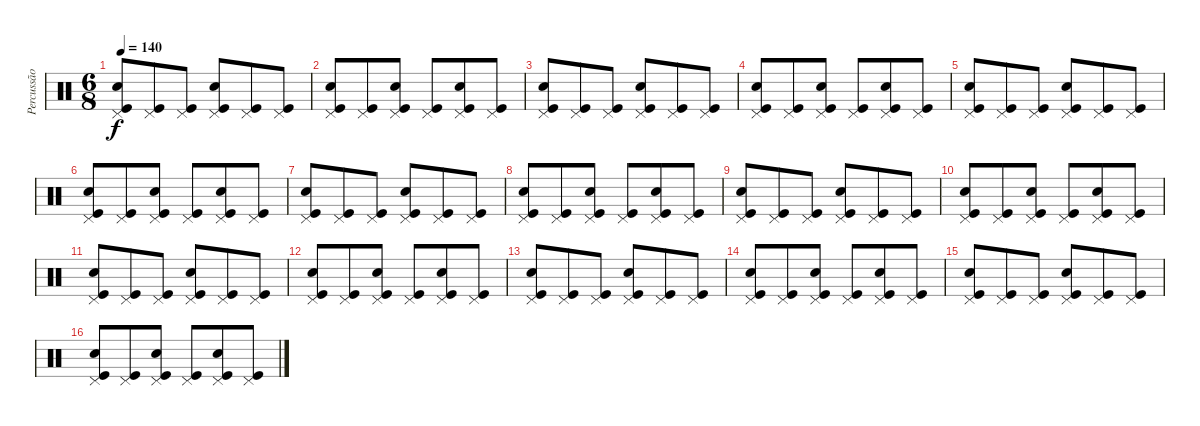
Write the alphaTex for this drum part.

\track ("Percussão" "Percussão") {instrument percussion}
\staff {score}
\articulation defaults
\ts (6 8)
\tempo 140
\clef neutral
\ks c
("Snare (hit) 2" "Kick (hit)" "Pedal Hi-Hat (hit)").8{dy f} ("Kick (hit)" "Pedal Hi-Hat (hit)").8 ("Kick (hit)" "Pedal Hi-Hat (hit)").8 ("Snare (hit) 2" "Kick (hit)" "Pedal Hi-Hat (hit)").8 ("Kick (hit)" "Pedal Hi-Hat (hit)").8 ("Kick (hit)" "Pedal Hi-Hat (hit)").8 |
("Snare (hit) 2" "Kick (hit)" "Pedal Hi-Hat (hit)").8 ("Kick (hit)" "Pedal Hi-Hat (hit)").8 ("Snare (hit) 2" "Kick (hit)" "Pedal Hi-Hat (hit)").8 ("Kick (hit)" "Pedal Hi-Hat (hit)").8 ("Snare (hit) 2" "Kick (hit)" "Pedal Hi-Hat (hit)").8 ("Kick (hit)" "Pedal Hi-Hat (hit)").8 |
("Snare (hit) 2" "Kick (hit)" "Pedal Hi-Hat (hit)").8 ("Kick (hit)" "Pedal Hi-Hat (hit)").8 ("Kick (hit)" "Pedal Hi-Hat (hit)").8 ("Snare (hit) 2" "Kick (hit)" "Pedal Hi-Hat (hit)").8 ("Kick (hit)" "Pedal Hi-Hat (hit)").8 ("Kick (hit)" "Pedal Hi-Hat (hit)").8 |
("Snare (hit) 2" "Kick (hit)" "Pedal Hi-Hat (hit)").8 ("Kick (hit)" "Pedal Hi-Hat (hit)").8 ("Snare (hit) 2" "Kick (hit)" "Pedal Hi-Hat (hit)").8 ("Kick (hit)" "Pedal Hi-Hat (hit)").8 ("Snare (hit) 2" "Kick (hit)" "Pedal Hi-Hat (hit)").8 ("Kick (hit)" "Pedal Hi-Hat (hit)").8 |
("Snare (hit) 2" "Kick (hit)" "Pedal Hi-Hat (hit)").8 ("Kick (hit)" "Pedal Hi-Hat (hit)").8 ("Kick (hit)" "Pedal Hi-Hat (hit)").8 ("Snare (hit) 2" "Kick (hit)" "Pedal Hi-Hat (hit)").8 ("Kick (hit)" "Pedal Hi-Hat (hit)").8 ("Kick (hit)" "Pedal Hi-Hat (hit)").8 |
("Snare (hit) 2" "Kick (hit)" "Pedal Hi-Hat (hit)").8 ("Kick (hit)" "Pedal Hi-Hat (hit)").8 ("Snare (hit) 2" "Kick (hit)" "Pedal Hi-Hat (hit)").8 ("Kick (hit)" "Pedal Hi-Hat (hit)").8 ("Snare (hit) 2" "Kick (hit)" "Pedal Hi-Hat (hit)").8 ("Kick (hit)" "Pedal Hi-Hat (hit)").8 |
("Snare (hit) 2" "Kick (hit)" "Pedal Hi-Hat (hit)").8 ("Kick (hit)" "Pedal Hi-Hat (hit)").8 ("Kick (hit)" "Pedal Hi-Hat (hit)").8 ("Snare (hit) 2" "Kick (hit)" "Pedal Hi-Hat (hit)").8 ("Kick (hit)" "Pedal Hi-Hat (hit)").8 ("Kick (hit)" "Pedal Hi-Hat (hit)").8 |
("Snare (hit) 2" "Kick (hit)" "Pedal Hi-Hat (hit)").8 ("Kick (hit)" "Pedal Hi-Hat (hit)").8 ("Snare (hit) 2" "Kick (hit)" "Pedal Hi-Hat (hit)").8 ("Kick (hit)" "Pedal Hi-Hat (hit)").8 ("Snare (hit) 2" "Kick (hit)" "Pedal Hi-Hat (hit)").8 ("Kick (hit)" "Pedal Hi-Hat (hit)").8 |
("Snare (hit) 2" "Kick (hit)" "Pedal Hi-Hat (hit)").8 ("Kick (hit)" "Pedal Hi-Hat (hit)").8 ("Kick (hit)" "Pedal Hi-Hat (hit)").8 ("Snare (hit) 2" "Kick (hit)" "Pedal Hi-Hat (hit)").8 ("Kick (hit)" "Pedal Hi-Hat (hit)").8 ("Kick (hit)" "Pedal Hi-Hat (hit)").8 |
("Snare (hit) 2" "Kick (hit)" "Pedal Hi-Hat (hit)").8 ("Kick (hit)" "Pedal Hi-Hat (hit)").8 ("Snare (hit) 2" "Kick (hit)" "Pedal Hi-Hat (hit)").8 ("Kick (hit)" "Pedal Hi-Hat (hit)").8 ("Snare (hit) 2" "Kick (hit)" "Pedal Hi-Hat (hit)").8 ("Kick (hit)" "Pedal Hi-Hat (hit)").8 |
("Snare (hit) 2" "Kick (hit)" "Pedal Hi-Hat (hit)").8 ("Kick (hit)" "Pedal Hi-Hat (hit)").8 ("Kick (hit)" "Pedal Hi-Hat (hit)").8 ("Snare (hit) 2" "Kick (hit)" "Pedal Hi-Hat (hit)").8 ("Kick (hit)" "Pedal Hi-Hat (hit)").8 ("Kick (hit)" "Pedal Hi-Hat (hit)").8 |
("Snare (hit) 2" "Kick (hit)" "Pedal Hi-Hat (hit)").8 ("Kick (hit)" "Pedal Hi-Hat (hit)").8 ("Snare (hit) 2" "Kick (hit)" "Pedal Hi-Hat (hit)").8 ("Kick (hit)" "Pedal Hi-Hat (hit)").8 ("Snare (hit) 2" "Kick (hit)" "Pedal Hi-Hat (hit)").8 ("Kick (hit)" "Pedal Hi-Hat (hit)").8 |
("Snare (hit) 2" "Kick (hit)" "Pedal Hi-Hat (hit)").8 ("Kick (hit)" "Pedal Hi-Hat (hit)").8 ("Kick (hit)" "Pedal Hi-Hat (hit)").8 ("Snare (hit) 2" "Kick (hit)" "Pedal Hi-Hat (hit)").8 ("Kick (hit)" "Pedal Hi-Hat (hit)").8 ("Kick (hit)" "Pedal Hi-Hat (hit)").8 |
("Snare (hit) 2" "Kick (hit)" "Pedal Hi-Hat (hit)").8 ("Kick (hit)" "Pedal Hi-Hat (hit)").8 ("Snare (hit) 2" "Kick (hit)" "Pedal Hi-Hat (hit)").8 ("Kick (hit)" "Pedal Hi-Hat (hit)").8 ("Snare (hit) 2" "Kick (hit)" "Pedal Hi-Hat (hit)").8 ("Kick (hit)" "Pedal Hi-Hat (hit)").8 |
("Snare (hit) 2" "Kick (hit)" "Pedal Hi-Hat (hit)").8 ("Kick (hit)" "Pedal Hi-Hat (hit)").8 ("Kick (hit)" "Pedal Hi-Hat (hit)").8 ("Snare (hit) 2" "Kick (hit)" "Pedal Hi-Hat (hit)").8 ("Kick (hit)" "Pedal Hi-Hat (hit)").8 ("Kick (hit)" "Pedal Hi-Hat (hit)").8 |
("Snare (hit) 2" "Kick (hit)" "Pedal Hi-Hat (hit)").8 ("Kick (hit)" "Pedal Hi-Hat (hit)").8 ("Snare (hit) 2" "Kick (hit)" "Pedal Hi-Hat (hit)").8 ("Kick (hit)" "Pedal Hi-Hat (hit)").8 ("Snare (hit) 2" "Kick (hit)" "Pedal Hi-Hat (hit)").8 ("Kick (hit)" "Pedal Hi-Hat (hit)").8
